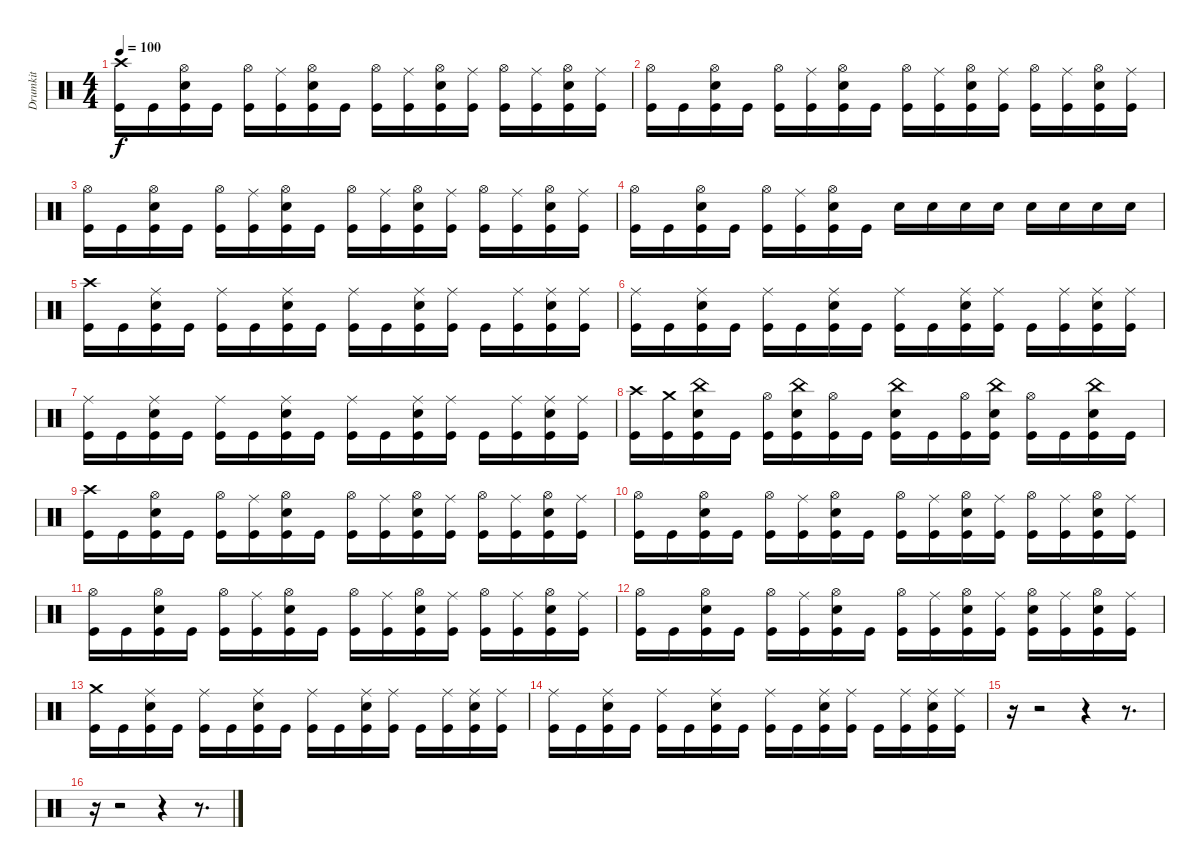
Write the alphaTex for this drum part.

\track ("Drumkit" "Drumkit") {instrument percussion}
\staff {score}
\articulation defaults
\ts (4 4)
\tempo 100
\clef neutral
\ks c
("Crash high (hit)" "Kick (hit)").16{dy f} "Kick (hit)".16 ("Hi-Hat (open)" "Snare (hit) 2" "Kick (hit)").16 "Kick (hit)".16 ("Hi-Hat (open)" "Kick (hit)").16 ("Ride (middle)" "Kick (hit)").16 ("Hi-Hat (open)" "Snare (hit) 2" "Kick (hit)").16 "Kick (hit)".16 ("Hi-Hat (open)" "Kick (hit)").16 ("Ride (middle)" "Kick (hit)").16 ("Hi-Hat (open)" "Snare (hit) 2" "Kick (hit)").16 ("Ride (middle)" "Kick (hit)").16 ("Hi-Hat (open)" "Kick (hit)").16 ("Ride (middle)" "Kick (hit)").16 ("Hi-Hat (open)" "Snare (hit) 2" "Kick (hit)").16 ("Ride (middle)" "Kick (hit)").16 |
("Hi-Hat (open)" "Kick (hit)").16 "Kick (hit)".16 ("Hi-Hat (open)" "Snare (hit) 2" "Kick (hit)").16 "Kick (hit)".16 ("Hi-Hat (open)" "Kick (hit)").16 ("Ride (middle)" "Kick (hit)").16 ("Hi-Hat (open)" "Snare (hit) 2" "Kick (hit)").16 "Kick (hit)".16 ("Hi-Hat (open)" "Kick (hit)").16 ("Ride (middle)" "Kick (hit)").16 ("Hi-Hat (open)" "Snare (hit) 2" "Kick (hit)").16 ("Ride (middle)" "Kick (hit)").16 ("Hi-Hat (open)" "Kick (hit)").16 ("Ride (middle)" "Kick (hit)").16 ("Hi-Hat (open)" "Snare (hit) 2" "Kick (hit)").16 ("Ride (middle)" "Kick (hit)").16 |
("Hi-Hat (open)" "Kick (hit)").16 "Kick (hit)".16 ("Hi-Hat (open)" "Snare (hit) 2" "Kick (hit)").16 "Kick (hit)".16 ("Hi-Hat (open)" "Kick (hit)").16 ("Ride (middle)" "Kick (hit)").16 ("Hi-Hat (open)" "Snare (hit) 2" "Kick (hit)").16 "Kick (hit)".16 ("Hi-Hat (open)" "Kick (hit)").16 ("Ride (middle)" "Kick (hit)").16 ("Hi-Hat (open)" "Snare (hit) 2" "Kick (hit)").16 ("Ride (middle)" "Kick (hit)").16 ("Hi-Hat (open)" "Kick (hit)").16 ("Ride (middle)" "Kick (hit)").16 ("Hi-Hat (open)" "Snare (hit) 2" "Kick (hit)").16 ("Ride (middle)" "Kick (hit)").16 |
("Hi-Hat (open)" "Kick (hit)").16 "Kick (hit)".16 ("Hi-Hat (open)" "Snare (hit) 2" "Kick (hit)").16 "Kick (hit)".16 ("Hi-Hat (open)" "Kick (hit)").16 ("Ride (middle)" "Kick (hit)").16 ("Hi-Hat (open)" "Snare (hit) 2" "Kick (hit)").16 "Kick (hit)".16 "Snare (hit) 2".16 "Snare (hit) 2".16 "Snare (hit) 2".16 "Snare (hit) 2".16 "Snare (hit) 2".16 "Snare (hit) 2".16 "Snare (hit) 2".16 "Snare (hit) 2".16 |
("Crash high (hit)" "Kick (hit)").16 "Kick (hit)".16 ("Ride (middle)" "Snare (hit) 2" "Kick (hit)").16 "Kick (hit)".16 ("Ride (middle)" "Kick (hit)").16 "Kick (hit)".16 ("Ride (middle)" "Snare (hit) 2" "Kick (hit)").16 "Kick (hit)".16 ("Ride (middle)" "Kick (hit)").16 "Kick (hit)".16 ("Ride (middle)" "Snare (hit) 2" "Kick (hit)").16 ("Ride (middle)" "Kick (hit)").16 "Kick (hit)".16 ("Ride (middle)" "Kick (hit)").16 ("Ride (middle)" "Snare (hit) 2" "Kick (hit)").16 ("Ride (middle)" "Kick (hit)").16 |
("Ride (middle)" "Kick (hit)").16 "Kick (hit)".16 ("Ride (middle)" "Snare (hit) 2" "Kick (hit)").16 "Kick (hit)".16 ("Ride (middle)" "Kick (hit)").16 "Kick (hit)".16 ("Ride (middle)" "Snare (hit) 2" "Kick (hit)").16 "Kick (hit)".16 ("Ride (middle)" "Kick (hit)").16 "Kick (hit)".16 ("Ride (middle)" "Snare (hit) 2" "Kick (hit)").16 ("Ride (middle)" "Kick (hit)").16 "Kick (hit)".16 ("Ride (middle)" "Kick (hit)").16 ("Ride (middle)" "Snare (hit) 2" "Kick (hit)").16 ("Ride (middle)" "Kick (hit)").16 |
("Ride (middle)" "Kick (hit)").16 "Kick (hit)".16 ("Ride (middle)" "Snare (hit) 2" "Kick (hit)").16 "Kick (hit)".16 ("Ride (middle)" "Kick (hit)").16 "Kick (hit)".16 ("Ride (middle)" "Snare (hit) 2" "Kick (hit)").16 "Kick (hit)".16 ("Ride (middle)" "Kick (hit)").16 "Kick (hit)".16 ("Ride (middle)" "Snare (hit) 2" "Kick (hit)").16 ("Ride (middle)" "Kick (hit)").16 "Kick (hit)".16 ("Ride (middle)" "Kick (hit)").16 ("Ride (middle)" "Snare (hit) 2" "Kick (hit)").16 ("Ride (middle)" "Kick (hit)").16 |
("Crash high (hit)" "Kick (hit)").16 ("Crash medium (hit)" "Kick (hit)").16 ("China (hit)" "Snare (hit) 2" "Kick (hit)").16 "Kick (hit)".16 ("Hi-Hat (open)" "Kick (hit)").16 ("China (hit)" "Snare (hit) 2" "Kick (hit)").16 ("Hi-Hat (open)" "Kick (hit)").16 "Kick (hit)".16 ("China (hit)" "Snare (hit) 2" "Kick (hit)").16 "Kick (hit)".16 ("Hi-Hat (open)" "Kick (hit)").16 ("China (hit)" "Snare (hit) 2" "Kick (hit)").16 ("Hi-Hat (open)" "Kick (hit)").16 "Kick (hit)".16 ("China (hit)" "Snare (hit) 2" "Kick (hit)").16 "Kick (hit)".16 |
("Crash high (hit)" "Kick (hit)").16 "Kick (hit)".16 ("Hi-Hat (open)" "Snare (hit) 2" "Kick (hit)").16 "Kick (hit)".16 ("Hi-Hat (open)" "Kick (hit)").16 ("Ride (middle)" "Kick (hit)").16 ("Hi-Hat (open)" "Snare (hit) 2" "Kick (hit)").16 "Kick (hit)".16 ("Hi-Hat (open)" "Kick (hit)").16 ("Ride (middle)" "Kick (hit)").16 ("Hi-Hat (open)" "Snare (hit) 2" "Kick (hit)").16 ("Ride (middle)" "Kick (hit)").16 ("Hi-Hat (open)" "Kick (hit)").16 ("Ride (middle)" "Kick (hit)").16 ("Hi-Hat (open)" "Snare (hit) 2" "Kick (hit)").16 ("Ride (middle)" "Kick (hit)").16 |
("Hi-Hat (open)" "Kick (hit)").16 "Kick (hit)".16 ("Hi-Hat (open)" "Snare (hit) 2" "Kick (hit)").16 "Kick (hit)".16 ("Hi-Hat (open)" "Kick (hit)").16 ("Ride (middle)" "Kick (hit)").16 ("Hi-Hat (open)" "Snare (hit) 2" "Kick (hit)").16 "Kick (hit)".16 ("Hi-Hat (open)" "Kick (hit)").16 ("Ride (middle)" "Kick (hit)").16 ("Hi-Hat (open)" "Snare (hit) 2" "Kick (hit)").16 ("Ride (middle)" "Kick (hit)").16 ("Hi-Hat (open)" "Kick (hit)").16 ("Ride (middle)" "Kick (hit)").16 ("Hi-Hat (open)" "Snare (hit) 2" "Kick (hit)").16 ("Ride (middle)" "Kick (hit)").16 |
("Hi-Hat (open)" "Kick (hit)").16 "Kick (hit)".16 ("Hi-Hat (open)" "Snare (hit) 2" "Kick (hit)").16 "Kick (hit)".16 ("Hi-Hat (open)" "Kick (hit)").16 ("Ride (middle)" "Kick (hit)").16 ("Hi-Hat (open)" "Snare (hit) 2" "Kick (hit)").16 "Kick (hit)".16 ("Hi-Hat (open)" "Kick (hit)").16 ("Ride (middle)" "Kick (hit)").16 ("Hi-Hat (open)" "Snare (hit) 2" "Kick (hit)").16 ("Ride (middle)" "Kick (hit)").16 ("Hi-Hat (open)" "Kick (hit)").16 ("Ride (middle)" "Kick (hit)").16 ("Hi-Hat (open)" "Snare (hit) 2" "Kick (hit)").16 ("Ride (middle)" "Kick (hit)").16 |
("Hi-Hat (open)" "Kick (hit)").16 "Kick (hit)".16 ("Hi-Hat (open)" "Snare (hit) 2" "Kick (hit)").16 "Kick (hit)".16 ("Hi-Hat (open)" "Kick (hit)").16 ("Ride (middle)" "Kick (hit)").16 ("Hi-Hat (open)" "Snare (hit) 2" "Kick (hit)").16 "Kick (hit)".16 ("Hi-Hat (open)" "Kick (hit)").16 ("Ride (middle)" "Kick (hit)").16 ("Hi-Hat (open)" "Snare (hit) 2" "Kick (hit)").16 ("Ride (middle)" "Kick (hit)").16 ("Hi-Hat (open)" "Snare (hit) 2" "Kick (hit)").16 ("Ride (middle)" "Kick (hit)").16 ("Hi-Hat (open)" "Snare (hit) 2" "Kick (hit)").16 ("Ride (middle)" "Kick (hit)").16 |
("Crash medium (hit)" "Kick (hit)").16 "Kick (hit)".16 ("Ride (middle)" "Snare (hit) 2" "Kick (hit)").16 "Kick (hit)".16 ("Ride (middle)" "Kick (hit)").16 "Kick (hit)".16 ("Ride (middle)" "Snare (hit) 2" "Kick (hit)").16 "Kick (hit)".16 ("Ride (middle)" "Kick (hit)").16 "Kick (hit)".16 ("Ride (middle)" "Snare (hit) 2" "Kick (hit)").16 ("Ride (middle)" "Kick (hit)").16 "Kick (hit)".16 ("Ride (middle)" "Kick (hit)").16 ("Ride (middle)" "Snare (hit) 2" "Kick (hit)").16 ("Ride (middle)" "Kick (hit)").16 |
("Ride (middle)" "Kick (hit)").16 "Kick (hit)".16 ("Ride (middle)" "Snare (hit) 2" "Kick (hit)").16 "Kick (hit)".16 ("Ride (middle)" "Kick (hit)").16 "Kick (hit)".16 ("Ride (middle)" "Snare (hit) 2" "Kick (hit)").16 "Kick (hit)".16 ("Ride (middle)" "Kick (hit)").16 "Kick (hit)".16 ("Ride (middle)" "Snare (hit) 2" "Kick (hit)").16 ("Ride (middle)" "Kick (hit)").16 "Kick (hit)".16 ("Ride (middle)" "Kick (hit)").16 ("Ride (middle)" "Snare (hit) 2" "Kick (hit)").16 ("Ride (middle)" "Kick (hit)").16 |
r.16 r.2 r.4 r.8{d} |
r.16 r.2 r.4 r.8{d}
